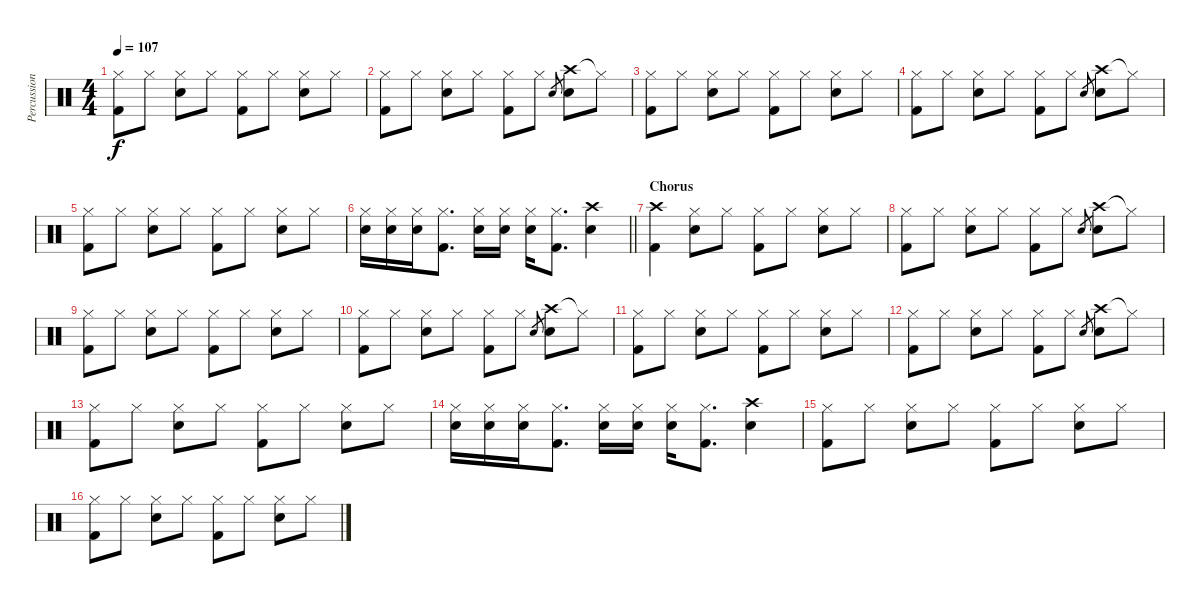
\track ("Percussion" "Percussion") {instrument percussion}
\staff {score}
\articulation defaults
\ts (4 4)
\tempo 107
\clef neutral
\ks c
("Hi-Hat (closed)" "Kick (hit) 2").8{dy f} "Hi-Hat (closed)".8 ("Hi-Hat (closed)" "Electric Snare (hit)").8 "Hi-Hat (closed)".8 ("Hi-Hat (closed)" "Kick (hit) 2").8 "Hi-Hat (closed)".8 ("Hi-Hat (closed)" "Electric Snare (hit)").8 "Hi-Hat (closed)".8 |
("Hi-Hat (closed)" "Kick (hit) 2").8 "Hi-Hat (closed)".8 ("Hi-Hat (closed)" "Electric Snare (hit)").8 "Hi-Hat (closed)".8 ("Hi-Hat (closed)" "Kick (hit) 2").8 "Hi-Hat (closed)".8 "Electric Snare (hit)".8{gr} ("Crash high (hit)" "Electric Snare (hit)").8 "Hi-Hat (closed)"{t}.8 |
("Hi-Hat (closed)" "Kick (hit) 2").8 "Hi-Hat (closed)".8 ("Hi-Hat (closed)" "Electric Snare (hit)").8 "Hi-Hat (closed)".8 ("Hi-Hat (closed)" "Kick (hit) 2").8 "Hi-Hat (closed)".8 ("Hi-Hat (closed)" "Electric Snare (hit)").8 "Hi-Hat (closed)".8 |
("Hi-Hat (closed)" "Kick (hit) 2").8 "Hi-Hat (closed)".8 ("Hi-Hat (closed)" "Electric Snare (hit)").8 "Hi-Hat (closed)".8 ("Hi-Hat (closed)" "Kick (hit) 2").8 "Hi-Hat (closed)".8 "Electric Snare (hit)".8{gr} ("Crash high (hit)" "Electric Snare (hit)").8 "Hi-Hat (closed)"{t}.8 |
("Hi-Hat (closed)" "Kick (hit) 2").8 "Hi-Hat (closed)".8 ("Hi-Hat (closed)" "Electric Snare (hit)").8 "Hi-Hat (closed)".8 ("Hi-Hat (closed)" "Kick (hit) 2").8 "Hi-Hat (closed)".8 ("Hi-Hat (closed)" "Electric Snare (hit)").8 "Hi-Hat (closed)".8 |
\barLineRight lightlight
("Hi-Hat (closed)" "Electric Snare (hit)").16 ("Hi-Hat (closed)" "Electric Snare (hit)").16 ("Hi-Hat (closed)" "Electric Snare (hit)").16 ("Hi-Hat (closed)" "Kick (hit) 2").8{d} ("Hi-Hat (closed)" "Electric Snare (hit)").16 ("Hi-Hat (closed)" "Electric Snare (hit)").16 ("Hi-Hat (closed)" "Electric Snare (hit)").16 ("Hi-Hat (closed)" "Kick (hit) 2").8{d} ("Crash high (hit)" "Electric Snare (hit)").4 |
\section ("" "Chorus")
("Crash high (hit)" "Kick (hit) 2").4 ("Hi-Hat (closed)" "Electric Snare (hit)").8 "Hi-Hat (closed)".8 ("Hi-Hat (closed)" "Kick (hit) 2").8 "Hi-Hat (closed)".8 ("Hi-Hat (closed)" "Electric Snare (hit)").8 "Hi-Hat (closed)".8 |
("Hi-Hat (closed)" "Kick (hit) 2").8 "Hi-Hat (closed)".8 ("Hi-Hat (closed)" "Electric Snare (hit)").8 "Hi-Hat (closed)".8 ("Hi-Hat (closed)" "Kick (hit) 2").8 "Hi-Hat (closed)".8 "Electric Snare (hit)".8{gr} ("Crash high (hit)" "Electric Snare (hit)").8 "Hi-Hat (closed)"{t}.8 |
("Hi-Hat (closed)" "Kick (hit) 2").8 "Hi-Hat (closed)".8 ("Hi-Hat (closed)" "Electric Snare (hit)").8 "Hi-Hat (closed)".8 ("Hi-Hat (closed)" "Kick (hit) 2").8 "Hi-Hat (closed)".8 ("Hi-Hat (closed)" "Electric Snare (hit)").8 "Hi-Hat (closed)".8 |
("Hi-Hat (closed)" "Kick (hit) 2").8 "Hi-Hat (closed)".8 ("Hi-Hat (closed)" "Electric Snare (hit)").8 "Hi-Hat (closed)".8 ("Hi-Hat (closed)" "Kick (hit) 2").8 "Hi-Hat (closed)".8 "Electric Snare (hit)".8{gr} ("Crash high (hit)" "Electric Snare (hit)").8 "Hi-Hat (closed)"{t}.8 |
("Hi-Hat (closed)" "Kick (hit) 2").8 "Hi-Hat (closed)".8 ("Hi-Hat (closed)" "Electric Snare (hit)").8 "Hi-Hat (closed)".8 ("Hi-Hat (closed)" "Kick (hit) 2").8 "Hi-Hat (closed)".8 ("Hi-Hat (closed)" "Electric Snare (hit)").8 "Hi-Hat (closed)".8 |
("Hi-Hat (closed)" "Kick (hit) 2").8 "Hi-Hat (closed)".8 ("Hi-Hat (closed)" "Electric Snare (hit)").8 "Hi-Hat (closed)".8 ("Hi-Hat (closed)" "Kick (hit) 2").8 "Hi-Hat (closed)".8 "Electric Snare (hit)".8{gr} ("Crash high (hit)" "Electric Snare (hit)").8 "Hi-Hat (closed)"{t}.8 |
("Hi-Hat (closed)" "Kick (hit) 2").8 "Hi-Hat (closed)".8 ("Hi-Hat (closed)" "Electric Snare (hit)").8 "Hi-Hat (closed)".8 ("Hi-Hat (closed)" "Kick (hit) 2").8 "Hi-Hat (closed)".8 ("Hi-Hat (closed)" "Electric Snare (hit)").8 "Hi-Hat (closed)".8 |
("Hi-Hat (closed)" "Electric Snare (hit)").16 ("Hi-Hat (closed)" "Electric Snare (hit)").16 ("Hi-Hat (closed)" "Electric Snare (hit)").16 ("Hi-Hat (closed)" "Kick (hit) 2").8{d} ("Hi-Hat (closed)" "Electric Snare (hit)").16 ("Hi-Hat (closed)" "Electric Snare (hit)").16 ("Hi-Hat (closed)" "Electric Snare (hit)").16 ("Hi-Hat (closed)" "Kick (hit) 2").8{d} ("Crash high (hit)" "Electric Snare (hit)").4 |
("Hi-Hat (closed)" "Kick (hit) 2").8 "Hi-Hat (closed)".8 ("Hi-Hat (closed)" "Electric Snare (hit)").8 "Hi-Hat (closed)".8 ("Hi-Hat (closed)" "Kick (hit) 2").8 "Hi-Hat (closed)".8 ("Hi-Hat (closed)" "Electric Snare (hit)").8 "Hi-Hat (closed)".8 |
("Hi-Hat (closed)" "Kick (hit) 2").8 "Hi-Hat (closed)".8 ("Hi-Hat (closed)" "Electric Snare (hit)").8 "Hi-Hat (closed)".8 ("Hi-Hat (closed)" "Kick (hit) 2").8 "Hi-Hat (closed)".8 ("Hi-Hat (closed)" "Electric Snare (hit)").8 "Hi-Hat (closed)".8
